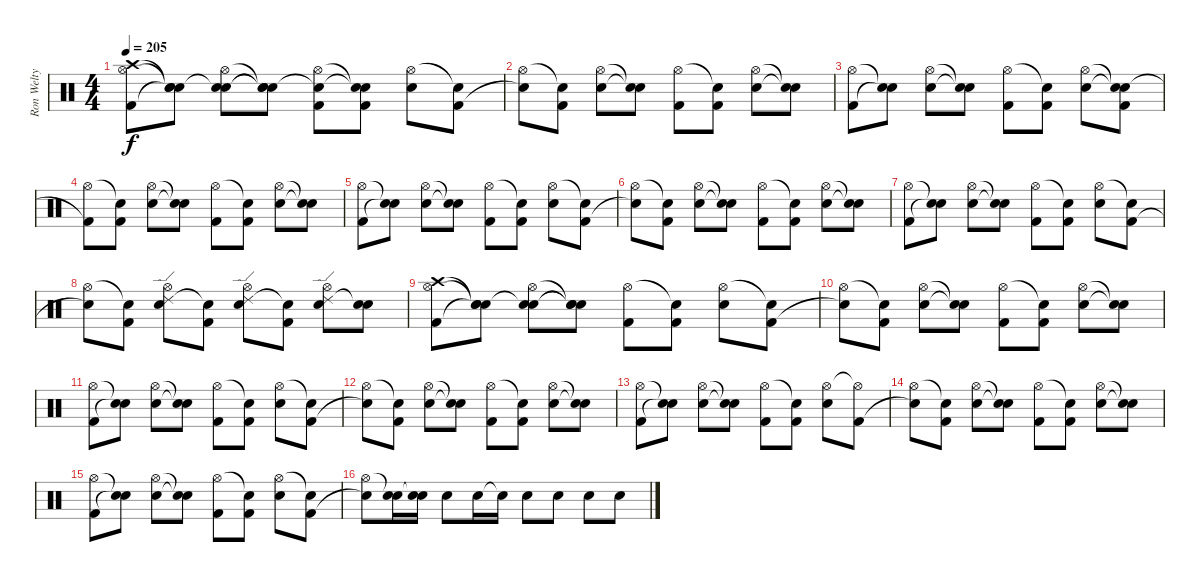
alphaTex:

\track ("Ron Welty" "Ron Welty") {instrument percussion}
\staff {score}
\articulation defaults
\ts (4 4)
\tempo 205
\clef neutral
\ks c
("Crash high (hit)" "Hi-Hat (open)" "Kick (hit) 2").8{dy f} ("Snare (hit)"{t} "Snare (hit)"{t} "Snare (hit)"{t}).8 ("Snare (hit)"{t} "Hi-Hat (open)" "Electric Snare (hit)").8 ("Snare (hit)"{t} "Snare (hit)"{t} "Snare (hit)"{t}).8 ("Snare (hit)"{t} "Hi-Hat (open)" "Kick (hit) 2").8 ("Snare (hit)"{t} "Snare (hit)"{t} "Kick (hit) 2").8 ("Hi-Hat (open)" "Electric Snare (hit)").8 ("Snare (hit)"{t} "Kick (hit) 2").8 |
("Hi-Hat (open)" "Snare (hit)"{t}).8 ("Snare (hit)"{t} "Kick (hit) 2").8 ("Hi-Hat (open)" "Electric Snare (hit)").8 ("Snare (hit)"{t} "Snare (hit)"{t}).8 ("Hi-Hat (open)" "Kick (hit) 2").8 ("Snare (hit)"{t} "Kick (hit) 2").8 ("Hi-Hat (open)" "Electric Snare (hit)").8 ("Snare (hit)"{t} "Snare (hit)"{t}).8 |
("Hi-Hat (open)" "Kick (hit) 2").8 ("Snare (hit)"{t} "Snare (hit)"{t}).8 ("Hi-Hat (open)" "Electric Snare (hit)").8 ("Snare (hit)"{t} "Snare (hit)"{t}).8 ("Hi-Hat (open)" "Kick (hit) 2").8 ("Snare (hit)"{t} "Kick (hit) 2").8 ("Hi-Hat (open)" "Electric Snare (hit)").8 ("Snare (hit)"{t} "Snare (hit)"{t} "Kick (hit) 2").8 |
("Hi-Hat (open)" "Kick (hit) 2"{t}).8 ("Snare (hit)"{t} "Kick (hit) 2").8 ("Hi-Hat (open)" "Electric Snare (hit)").8 ("Snare (hit)"{t} "Snare (hit)"{t}).8 ("Hi-Hat (open)" "Kick (hit) 2").8 ("Snare (hit)"{t} "Kick (hit) 2").8 ("Hi-Hat (open)" "Electric Snare (hit)").8 ("Snare (hit)"{t} "Snare (hit)"{t}).8 |
("Hi-Hat (open)" "Kick (hit) 2").8 ("Snare (hit)"{t} "Snare (hit)"{t}).8 ("Hi-Hat (open)" "Electric Snare (hit)").8 ("Snare (hit)"{t} "Snare (hit)"{t}).8 ("Hi-Hat (open)" "Kick (hit) 2").8 ("Snare (hit)"{t} "Kick (hit) 2").8 ("Hi-Hat (open)" "Electric Snare (hit)").8 ("Snare (hit)"{t} "Kick (hit) 2").8 |
("Hi-Hat (open)" "Snare (hit)"{t}).8 ("Snare (hit)"{t} "Kick (hit) 2").8 ("Hi-Hat (open)" "Electric Snare (hit)").8 ("Snare (hit)"{t} "Snare (hit)"{t}).8 ("Hi-Hat (open)" "Kick (hit) 2").8 ("Snare (hit)"{t} "Kick (hit) 2").8 ("Hi-Hat (open)" "Electric Snare (hit)").8 ("Snare (hit)"{t} "Snare (hit)"{t}).8 |
("Hi-Hat (open)" "Kick (hit) 2").8 ("Snare (hit)"{t} "Snare (hit)"{t}).8 ("Hi-Hat (open)" "Electric Snare (hit)").8 ("Snare (hit)"{t} "Snare (hit)"{t}).8 ("Hi-Hat (open)" "Kick (hit) 2").8 ("Snare (hit)"{t} "Kick (hit) 2").8 ("Hi-Hat (open)" "Electric Snare (hit)").8 ("Snare (hit)"{t} "Kick (hit) 2").8 |
("Hi-Hat (open)" "Snare (hit)"{t}).8 ("Snare (hit)"{t} "Kick (hit) 2").8 ("Ride (edge) 2" "Hi-Hat (open)" "Electric Snare (hit)").8 ("Snare (hit)"{t} "Kick (hit) 2").8 ("Ride (edge) 2" "Hi-Hat (open)" "Electric Snare (hit)").8 ("Snare (hit)"{t} "Kick (hit) 2").8 ("Ride (edge) 2" "Hi-Hat (open)" "Electric Snare (hit)").8 ("Snare (hit)"{t} "Electric Snare (hit)").8 |
("Crash high (hit)" "Hi-Hat (open)" "Kick (hit) 2").8 ("Snare (hit)"{t} "Snare (hit)"{t} "Snare (hit)"{t}).8 ("Snare (hit)"{t} "Hi-Hat (open)" "Electric Snare (hit)").8 ("Snare (hit)"{t} "Snare (hit)"{t} "Snare (hit)"{t}).8 ("Hi-Hat (open)" "Kick (hit) 2").8 ("Snare (hit)"{t} "Kick (hit) 2").8 ("Hi-Hat (open)" "Electric Snare (hit)").8 ("Snare (hit)"{t} "Kick (hit) 2").8 |
("Hi-Hat (open)" "Snare (hit)"{t}).8 ("Snare (hit)"{t} "Kick (hit) 2").8 ("Hi-Hat (open)" "Electric Snare (hit)").8 ("Snare (hit)"{t} "Snare (hit)"{t}).8 ("Hi-Hat (open)" "Kick (hit) 2").8 ("Snare (hit)"{t} "Kick (hit) 2").8 ("Hi-Hat (open)" "Electric Snare (hit)").8 ("Snare (hit)"{t} "Snare (hit)"{t}).8 |
("Hi-Hat (open)" "Kick (hit) 2").8 ("Snare (hit)"{t} "Snare (hit)"{t}).8 ("Hi-Hat (open)" "Electric Snare (hit)").8 ("Snare (hit)"{t} "Snare (hit)"{t}).8 ("Hi-Hat (open)" "Kick (hit) 2").8 ("Snare (hit)"{t} "Kick (hit) 2").8 ("Hi-Hat (open)" "Electric Snare (hit)").8 ("Snare (hit)"{t} "Kick (hit) 2").8 |
("Hi-Hat (open)" "Snare (hit)"{t}).8 ("Snare (hit)"{t} "Kick (hit) 2").8 ("Hi-Hat (open)" "Electric Snare (hit)").8 ("Snare (hit)"{t} "Snare (hit)"{t}).8 ("Hi-Hat (open)" "Kick (hit) 2").8 ("Snare (hit)"{t} "Kick (hit) 2").8 ("Hi-Hat (open)" "Electric Snare (hit)").8 ("Snare (hit)"{t} "Snare (hit)"{t}).8 |
("Hi-Hat (open)" "Kick (hit) 2").8 ("Snare (hit)"{t} "Snare (hit)"{t}).8 ("Hi-Hat (open)" "Electric Snare (hit)").8 ("Snare (hit)"{t} "Snare (hit)"{t}).8 ("Hi-Hat (open)" "Kick (hit) 2").8 ("Snare (hit)"{t} "Kick (hit) 2").8 ("Hi-Hat (open)" "Electric Snare (hit)").8 ("Hi-Hat (open)"{t} "Kick (hit) 2").8 |
("Hi-Hat (open)" "Snare (hit)"{t}).8 ("Snare (hit)"{t} "Kick (hit) 2").8 ("Hi-Hat (open)" "Electric Snare (hit)").8 ("Snare (hit)"{t} "Snare (hit)"{t}).8 ("Hi-Hat (open)" "Kick (hit) 2").8 ("Snare (hit)"{t} "Kick (hit) 2").8 ("Hi-Hat (open)" "Electric Snare (hit)").8 ("Snare (hit)"{t} "Snare (hit)"{t}).8 |
("Hi-Hat (open)" "Kick (hit) 2").8 ("Snare (hit)"{t} "Snare (hit)"{t}).8 ("Hi-Hat (open)" "Electric Snare (hit)").8 ("Snare (hit)"{t} "Snare (hit)"{t}).8 ("Hi-Hat (open)" "Kick (hit) 2").8 ("Snare (hit)"{t} "Kick (hit) 2").8 ("Hi-Hat (open)" "Electric Snare (hit)").8 ("Snare (hit)"{t} "Kick (hit) 2").8 |
("Hi-Hat (open)" "Snare (hit)"{t}).8 ("Snare (hit)"{t} "Electric Snare (hit)").16 ("Snare (hit)"{t} "Electric Snare (hit)").16 "Electric Snare (hit)".8 "Electric Snare (hit)".16 "Electric Snare (hit)"{t}.16 "Electric Snare (hit)".8 "Electric Snare (hit)".8 "Electric Snare (hit)".8 "Electric Snare (hit)".8
